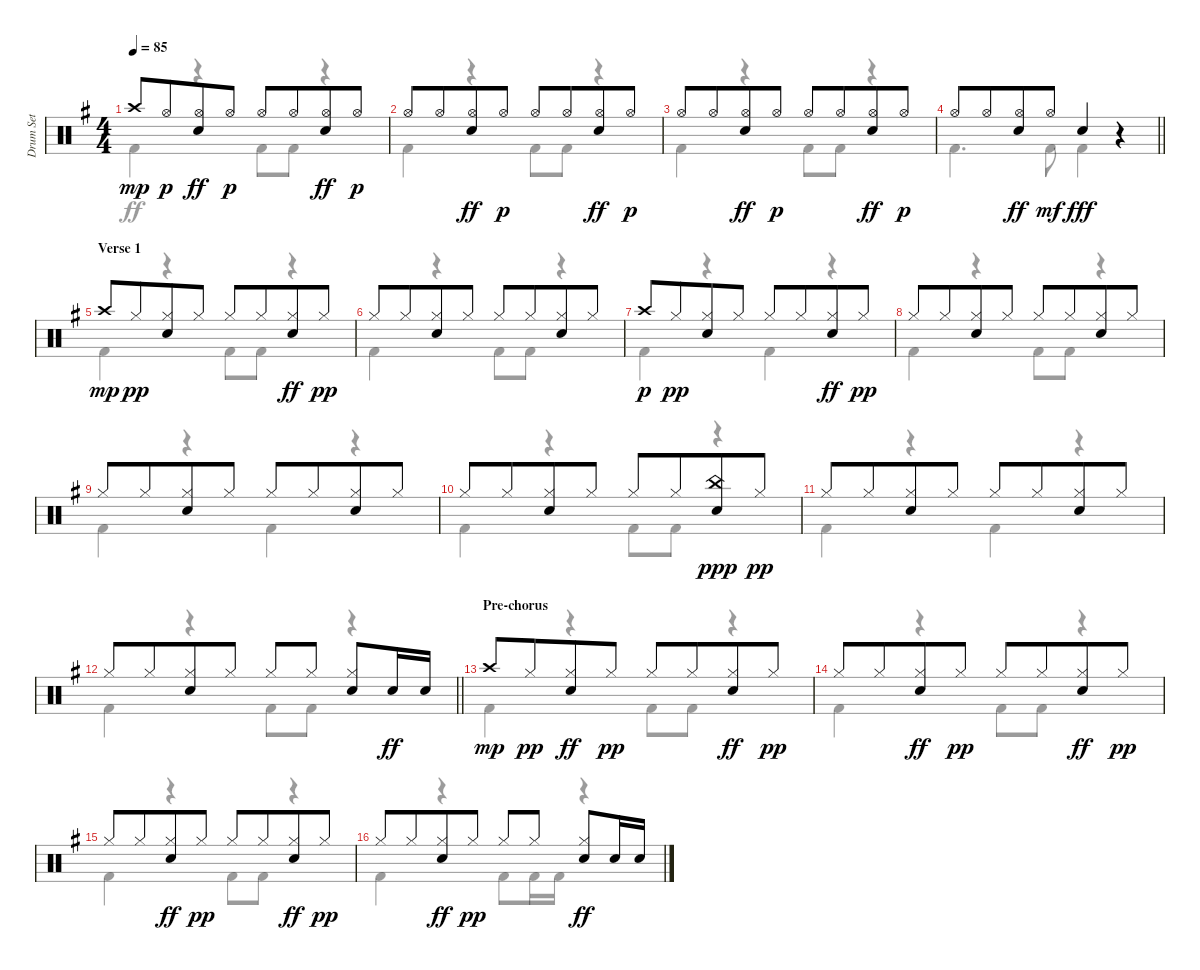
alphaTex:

\track ("Drum Set" "Drum Set") {instrument percussion}
\staff {score}
\articulation defaults
\voice
\ts (4 4)
\tempo 85
\clef neutral
\ks g "Crash high (hit)".8{dy mp} "Hi-Hat (open)".8{dy p beam merge}
("Hi-Hat (open)" "Electric Snare (hit)").8{dy ff} "Hi-Hat (open)".8{dy p} "Hi-Hat (open)".8 "Hi-Hat (open)".8{beam merge} ("Hi-Hat (open)" "Electric Snare (hit)").8{dy ff} "Hi-Hat (open)".8{dy p} |
"Hi-Hat (open)".8 "Hi-Hat (open)".8{beam merge} ("Hi-Hat (open)" "Electric Snare (hit)").8{dy ff} "Hi-Hat (open)".8{dy p} "Hi-Hat (open)".8 "Hi-Hat (open)".8{beam merge} ("Hi-Hat (open)" "Electric Snare (hit)").8{dy ff} "Hi-Hat (open)".8{dy p} |
"Hi-Hat (open)".8 "Hi-Hat (open)".8{beam merge} ("Hi-Hat (open)" "Electric Snare (hit)").8{dy ff} "Hi-Hat (open)".8{dy p} "Hi-Hat (open)".8 "Hi-Hat (open)".8{beam merge} ("Hi-Hat (open)" "Electric Snare (hit)").8{dy ff} "Hi-Hat (open)".8{dy p} |
\barLineRight lightlight "Hi-Hat (open)".8 "Hi-Hat (open)".8{beam merge}
("Hi-Hat (open)" "Electric Snare (hit)").8{dy ff} "Hi-Hat (open)".8{dy mf} "Electric Snare (hit)".4{dy fff} r.4 |
\section ("" "Verse 1")
"Crash high (hit)".8{dy mp} "Hi-Hat (closed)".8{dy pp beam merge} ("Hi-Hat (closed)" "Electric Snare (hit)").8 "Hi-Hat (closed)".8 "Hi-Hat (closed)".8 "Hi-Hat (closed)".8{beam merge} ("Hi-Hat (closed)" "Electric Snare (hit)").8{dy ff} "Hi-Hat (closed)".8{dy pp} |
"Hi-Hat (closed)".8 "Hi-Hat (closed)".8{beam merge} ("Hi-Hat (closed)" "Electric Snare (hit)").8 "Hi-Hat (closed)".8 "Hi-Hat (closed)".8 "Hi-Hat (closed)".8{beam merge} ("Hi-Hat (closed)" "Electric Snare (hit)").8 "Hi-Hat (closed)".8 |
"Crash high (hit)".8{dy p} "Hi-Hat (closed)".8{dy pp beam merge} ("Hi-Hat (closed)" "Electric Snare (hit)").8 "Hi-Hat (closed)".8 "Hi-Hat (closed)".8 "Hi-Hat (closed)".8{beam merge} ("Hi-Hat (closed)" "Electric Snare (hit)").8{dy ff} "Hi-Hat (closed)".8{dy pp} |
"Hi-Hat (closed)".8 "Hi-Hat (closed)".8{beam merge} ("Hi-Hat (closed)" "Electric Snare (hit)").8 "Hi-Hat (closed)".8 "Hi-Hat (closed)".8 "Hi-Hat (closed)".8{beam merge} ("Hi-Hat (closed)" "Electric Snare (hit)").8 "Hi-Hat (closed)".8 |
"Hi-Hat (closed)".8 "Hi-Hat (closed)".8{beam merge} ("Hi-Hat (closed)" "Electric Snare (hit)").8 "Hi-Hat (closed)".8 "Hi-Hat (closed)".8 "Hi-Hat (closed)".8{beam merge} ("Hi-Hat (closed)" "Electric Snare (hit)").8 "Hi-Hat (closed)".8 |
"Hi-Hat (closed)".8 "Hi-Hat (closed)".8{beam merge} ("Hi-Hat (closed)" "Electric Snare (hit)").8 "Hi-Hat (closed)".8 "Hi-Hat (closed)".8 "Hi-Hat (closed)".8{beam merge} ("China (hit)" "Electric Snare (hit)").8{dy ppp} "Hi-Hat (closed)".8{dy pp} |
"Hi-Hat (closed)".8 "Hi-Hat (closed)".8{beam merge} ("Hi-Hat (closed)" "Electric Snare (hit)").8 "Hi-Hat (closed)".8 "Hi-Hat (closed)".8 "Hi-Hat (closed)".8{beam merge} ("Hi-Hat (closed)" "Electric Snare (hit)").8 "Hi-Hat (closed)".8 |
\barLineRight lightlight "Hi-Hat (closed)".8 "Hi-Hat (closed)".8{beam merge}
("Hi-Hat (closed)" "Electric Snare (hit)").8 "Hi-Hat (closed)".8 "Hi-Hat (closed)".8 "Hi-Hat (closed)".8 ("Hi-Hat (closed)" "Electric Snare (hit)").8 "Electric Snare (hit)".16{dy ff} "Electric Snare (hit)".16 |
\section ("" "Pre-chorus")
"Crash high (hit)".8{dy mp} "Hi-Hat (closed)".8{dy pp beam merge} ("Hi-Hat (closed)" "Electric Snare (hit)").8{dy ff} "Hi-Hat (closed)".8{dy pp} "Hi-Hat (closed)".8 "Hi-Hat (closed)".8{beam merge} ("Hi-Hat (closed)" "Electric Snare (hit)").8{dy ff} "Hi-Hat (closed)".8{dy pp} |
"Hi-Hat (closed)".8 "Hi-Hat (closed)".8{beam merge} ("Hi-Hat (closed)" "Electric Snare (hit)").8{dy ff} "Hi-Hat (closed)".8{dy pp} "Hi-Hat (closed)".8 "Hi-Hat (closed)".8{beam merge} ("Hi-Hat (closed)" "Electric Snare (hit)").8{dy ff} "Hi-Hat (closed)".8{dy pp} |
"Hi-Hat (closed)".8 "Hi-Hat (closed)".8{beam merge} ("Hi-Hat (closed)" "Electric Snare (hit)").8{dy ff} "Hi-Hat (closed)".8{dy pp} "Hi-Hat (closed)".8 "Hi-Hat (closed)".8{beam merge} ("Hi-Hat (closed)" "Electric Snare (hit)").8{dy ff} "Hi-Hat (closed)".8{dy pp} |
"Hi-Hat (closed)".8 "Hi-Hat (closed)".8{beam merge} ("Hi-Hat (closed)" "Electric Snare (hit)").8{dy ff} "Hi-Hat (closed)".8{dy pp} "Hi-Hat (closed)".8 "Hi-Hat (closed)".8 ("Hi-Hat (closed)" "Electric Snare (hit)").8{dy ff} "Electric Snare (hit)".16 "Electric Snare (hit)".16
\voice
\clef neutral
\ottava regular
\simile none
\ks g "Kick (hit) 2".4{dy ff}
r.4 "Kick (hit) 2".8 "Kick (hit) 2".8 r.4 |
"Kick (hit) 2".4 r.4 "Kick (hit) 2".8 "Kick (hit) 2".8 r.4 |
"Kick (hit) 2".4 r.4 "Kick (hit) 2".8 "Kick (hit) 2".8 r.4 |
\barLineRight lightlight "Kick (hit) 2".4{d} "Kick (hit) 2".8 "Kick (hit) 2".4
r.4 |
"Kick (hit) 2".4 r.4 "Kick (hit) 2".8 "Kick (hit) 2".8 r.4 |
"Kick (hit) 2".4 r.4 "Kick (hit) 2".8 "Kick (hit) 2".8 r.4 |
"Kick (hit) 2".4 r.4 "Kick (hit) 2".4 r.4 |
"Kick (hit) 2".4 r.4 "Kick (hit) 2".8 "Kick (hit) 2".8 r.4 |
"Kick (hit) 2".4 r.4 "Kick (hit) 2".4 r.4 |
"Kick (hit) 2".4 r.4 "Kick (hit) 2".8 "Kick (hit) 2".8 r.4 |
"Kick (hit) 2".4 r.4 "Kick (hit) 2".4 r.4 |
\barLineRight lightlight "Kick (hit) 2".4
r.4 "Kick (hit) 2".8 "Kick (hit) 2".8 r.4 |
"Kick (hit) 2".4 r.4 "Kick (hit) 2".8 "Kick (hit) 2".8 r.4 |
"Kick (hit) 2".4 r.4 "Kick (hit) 2".8 "Kick (hit) 2".8 r.4 |
"Kick (hit) 2".4 r.4 "Kick (hit) 2".8 "Kick (hit) 2".8 r.4 |
"Kick (hit) 2".4 r.4 "Kick (hit) 2".8 "Kick (hit) 2".16 "Kick (hit) 2".16 r.4
